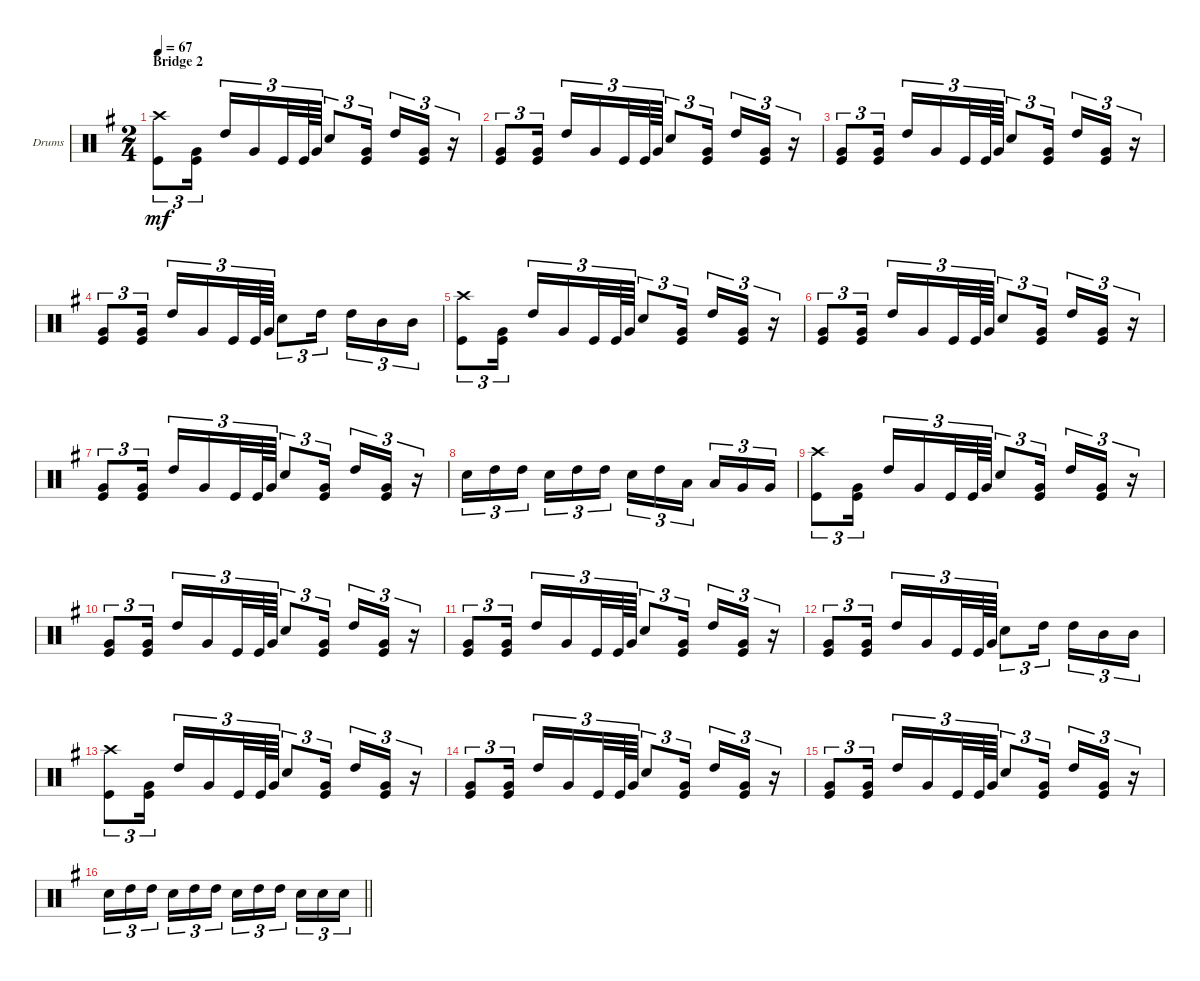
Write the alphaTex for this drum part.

\bracketExtendMode groupsimilarinstruments
\firstSystemTrackNameOrientation horizontal
\otherSystemsTrackNameOrientation horizontal
\track ("drums (Anton Zulganov)" "Drums") {instrument percussion}
\staff {score}
\articulation defaults
\ts (2 4)
\section ("" "Bridge 2")
\tempo 67
\clef neutral
\ks eminor
("Kick (hit)" "Crash high (hit)").8{tu (3 2) dy mf} ("Kick (hit)" "Very Low Tom (hit)").16{tu (3 2)} "High Tom (hit)".16{tu (3 2)} "Very Low Tom (hit)".16{tu (3 2)} "Kick (hit)".32{tu (3 2)} "Kick (hit)".64{tu (3 2)} "Very Low Tom (hit)".64{tu (3 2)} "Snare (hit) 2".8{tu (3 2)} ("Kick (hit)" "Very Low Tom (hit)").16{tu (3 2)} "High Tom (hit)".16{tu (3 2)} ("Kick (hit)" "Very Low Tom (hit)").16{tu (3 2)} r.16{tu (3 2)} |
("Kick (hit)" "Very Low Tom (hit)").8{tu (3 2)} ("Kick (hit)" "Very Low Tom (hit)").16{tu (3 2)} "High Tom (hit)".16{tu (3 2)} "Very Low Tom (hit)".16{tu (3 2)} "Kick (hit)".32{tu (3 2)} "Kick (hit)".64{tu (3 2)} "Very Low Tom (hit)".64{tu (3 2)} "Snare (hit) 2".8{tu (3 2)} ("Kick (hit)" "Very Low Tom (hit)").16{tu (3 2)} "High Tom (hit)".16{tu (3 2)} ("Kick (hit)" "Very Low Tom (hit)").16{tu (3 2)} r.16{tu (3 2)} |
("Kick (hit)" "Very Low Tom (hit)").8{tu (3 2)} ("Kick (hit)" "Very Low Tom (hit)").16{tu (3 2)} "High Tom (hit)".16{tu (3 2)} "Very Low Tom (hit)".16{tu (3 2)} "Kick (hit)".32{tu (3 2)} "Kick (hit)".64{tu (3 2)} "Very Low Tom (hit)".64{tu (3 2)} "Snare (hit) 2".8{tu (3 2)} ("Kick (hit)" "Very Low Tom (hit)").16{tu (3 2)} "High Tom (hit)".16{tu (3 2)} ("Kick (hit)" "Very Low Tom (hit)").16{tu (3 2)} r.16{tu (3 2)} |
("Kick (hit)" "Very Low Tom (hit)").8{tu (3 2)} ("Kick (hit)" "Very Low Tom (hit)").16{tu (3 2)} "High Tom (hit)".16{tu (3 2)} "Very Low Tom (hit)".16{tu (3 2)} "Kick (hit)".32{tu (3 2)} "Kick (hit)".64{tu (3 2)} "Very Low Tom (hit)".64{tu (3 2)} "Snare (hit) 2".8{tu (3 2)} "High Tom (hit)".16{tu (3 2)} "High Tom (hit)".16{tu (3 2)} "Mid Tom (hit)".16{tu (3 2)} "Mid Tom (hit)".16{tu (3 2)} |
("Kick (hit)" "Crash high (hit)").8{tu (3 2)} ("Kick (hit)" "Very Low Tom (hit)").16{tu (3 2)} "High Tom (hit)".16{tu (3 2)} "Very Low Tom (hit)".16{tu (3 2)} "Kick (hit)".32{tu (3 2)} "Kick (hit)".64{tu (3 2)} "Very Low Tom (hit)".64{tu (3 2)} "Snare (hit) 2".8{tu (3 2)} ("Kick (hit)" "Very Low Tom (hit)").16{tu (3 2)} "High Tom (hit)".16{tu (3 2)} ("Kick (hit)" "Very Low Tom (hit)").16{tu (3 2)} r.16{tu (3 2)} |
("Kick (hit)" "Very Low Tom (hit)").8{tu (3 2)} ("Kick (hit)" "Very Low Tom (hit)").16{tu (3 2)} "High Tom (hit)".16{tu (3 2)} "Very Low Tom (hit)".16{tu (3 2)} "Kick (hit)".32{tu (3 2)} "Kick (hit)".64{tu (3 2)} "Very Low Tom (hit)".64{tu (3 2)} "Snare (hit) 2".8{tu (3 2)} ("Kick (hit)" "Very Low Tom (hit)").16{tu (3 2)} "High Tom (hit)".16{tu (3 2)} ("Kick (hit)" "Very Low Tom (hit)").16{tu (3 2)} r.16{tu (3 2)} |
("Kick (hit)" "Very Low Tom (hit)").8{tu (3 2)} ("Kick (hit)" "Very Low Tom (hit)").16{tu (3 2)} "High Tom (hit)".16{tu (3 2)} "Very Low Tom (hit)".16{tu (3 2)} "Kick (hit)".32{tu (3 2)} "Kick (hit)".64{tu (3 2)} "Very Low Tom (hit)".64{tu (3 2)} "Snare (hit) 2".8{tu (3 2)} ("Kick (hit)" "Very Low Tom (hit)").16{tu (3 2)} "High Tom (hit)".16{tu (3 2)} ("Kick (hit)" "Very Low Tom (hit)").16{tu (3 2)} r.16{tu (3 2)} |
"Snare (hit) 2".16{tu (3 2)} "High Tom (hit)".16{tu (3 2)} "High Tom (hit)".16{tu (3 2)} "Snare (hit) 2".16{tu (3 2)} "High Tom (hit)".16{tu (3 2)} "High Tom (hit)".16{tu (3 2)} "Snare (hit) 2".16{tu (3 2)} "High Tom (hit)".16{tu (3 2)} "Low Tom (hit)".16{tu (3 2)} "Low Tom (hit)".16{tu (3 2)} "Very Low Tom (hit)".16{tu (3 2)} "Very Low Tom (hit)".16{tu (3 2)} |
("Kick (hit)" "Crash high (hit)").8{tu (3 2)} ("Kick (hit)" "Very Low Tom (hit)").16{tu (3 2)} "High Tom (hit)".16{tu (3 2)} "Very Low Tom (hit)".16{tu (3 2)} "Kick (hit)".32{tu (3 2)} "Kick (hit)".64{tu (3 2)} "Very Low Tom (hit)".64{tu (3 2)} "Snare (hit) 2".8{tu (3 2)} ("Kick (hit)" "Very Low Tom (hit)").16{tu (3 2)} "High Tom (hit)".16{tu (3 2)} ("Kick (hit)" "Very Low Tom (hit)").16{tu (3 2)} r.16{tu (3 2)} |
("Kick (hit)" "Very Low Tom (hit)").8{tu (3 2)} ("Kick (hit)" "Very Low Tom (hit)").16{tu (3 2)} "High Tom (hit)".16{tu (3 2)} "Very Low Tom (hit)".16{tu (3 2)} "Kick (hit)".32{tu (3 2)} "Kick (hit)".64{tu (3 2)} "Very Low Tom (hit)".64{tu (3 2)} "Snare (hit) 2".8{tu (3 2)} ("Kick (hit)" "Very Low Tom (hit)").16{tu (3 2)} "High Tom (hit)".16{tu (3 2)} ("Kick (hit)" "Very Low Tom (hit)").16{tu (3 2)} r.16{tu (3 2)} |
("Kick (hit)" "Very Low Tom (hit)").8{tu (3 2)} ("Kick (hit)" "Very Low Tom (hit)").16{tu (3 2)} "High Tom (hit)".16{tu (3 2)} "Very Low Tom (hit)".16{tu (3 2)} "Kick (hit)".32{tu (3 2)} "Kick (hit)".64{tu (3 2)} "Very Low Tom (hit)".64{tu (3 2)} "Snare (hit) 2".8{tu (3 2)} ("Kick (hit)" "Very Low Tom (hit)").16{tu (3 2)} "High Tom (hit)".16{tu (3 2)} ("Kick (hit)" "Very Low Tom (hit)").16{tu (3 2)} r.16{tu (3 2)} |
("Kick (hit)" "Very Low Tom (hit)").8{tu (3 2)} ("Kick (hit)" "Very Low Tom (hit)").16{tu (3 2)} "High Tom (hit)".16{tu (3 2)} "Very Low Tom (hit)".16{tu (3 2)} "Kick (hit)".32{tu (3 2)} "Kick (hit)".64{tu (3 2)} "Very Low Tom (hit)".64{tu (3 2)} "Snare (hit) 2".8{tu (3 2)} "High Tom (hit)".16{tu (3 2)} "High Tom (hit)".16{tu (3 2)} "Mid Tom (hit)".16{tu (3 2)} "Mid Tom (hit)".16{tu (3 2)} |
("Kick (hit)" "Crash high (hit)").8{tu (3 2)} ("Kick (hit)" "Very Low Tom (hit)").16{tu (3 2)} "High Tom (hit)".16{tu (3 2)} "Very Low Tom (hit)".16{tu (3 2)} "Kick (hit)".32{tu (3 2)} "Kick (hit)".64{tu (3 2)} "Very Low Tom (hit)".64{tu (3 2)} "Snare (hit) 2".8{tu (3 2)} ("Kick (hit)" "Very Low Tom (hit)").16{tu (3 2)} "High Tom (hit)".16{tu (3 2)} ("Kick (hit)" "Very Low Tom (hit)").16{tu (3 2)} r.16{tu (3 2)} |
("Kick (hit)" "Very Low Tom (hit)").8{tu (3 2)} ("Kick (hit)" "Very Low Tom (hit)").16{tu (3 2)} "High Tom (hit)".16{tu (3 2)} "Very Low Tom (hit)".16{tu (3 2)} "Kick (hit)".32{tu (3 2)} "Kick (hit)".64{tu (3 2)} "Very Low Tom (hit)".64{tu (3 2)} "Snare (hit) 2".8{tu (3 2)} ("Kick (hit)" "Very Low Tom (hit)").16{tu (3 2)} "High Tom (hit)".16{tu (3 2)} ("Kick (hit)" "Very Low Tom (hit)").16{tu (3 2)} r.16{tu (3 2)} |
("Kick (hit)" "Very Low Tom (hit)").8{tu (3 2)} ("Kick (hit)" "Very Low Tom (hit)").16{tu (3 2)} "High Tom (hit)".16{tu (3 2)} "Very Low Tom (hit)".16{tu (3 2)} "Kick (hit)".32{tu (3 2)} "Kick (hit)".64{tu (3 2)} "Very Low Tom (hit)".64{tu (3 2)} "Snare (hit) 2".8{tu (3 2)} ("Kick (hit)" "Very Low Tom (hit)").16{tu (3 2)} "High Tom (hit)".16{tu (3 2)} ("Kick (hit)" "Very Low Tom (hit)").16{tu (3 2)} r.16{tu (3 2)} |
\barLineRight lightlight "Snare (hit) 2".16{tu (3 2)} "High Tom (hit)".16{tu (3 2)} "High Tom (hit)".16{tu (3 2)} "Snare (hit) 2".16{tu (3 2)} "High Tom (hit)".16{tu (3 2)} "High Tom (hit)".16{tu (3 2)} "Snare (hit) 2".16{tu (3 2)} "High Tom (hit)".16{tu (3 2)} "High Tom (hit)".16{tu (3 2)} "Snare (hit) 2".16{tu (3 2)} "Snare (hit) 2".16{tu (3 2)} "Snare (hit) 2".16{tu (3 2)}
